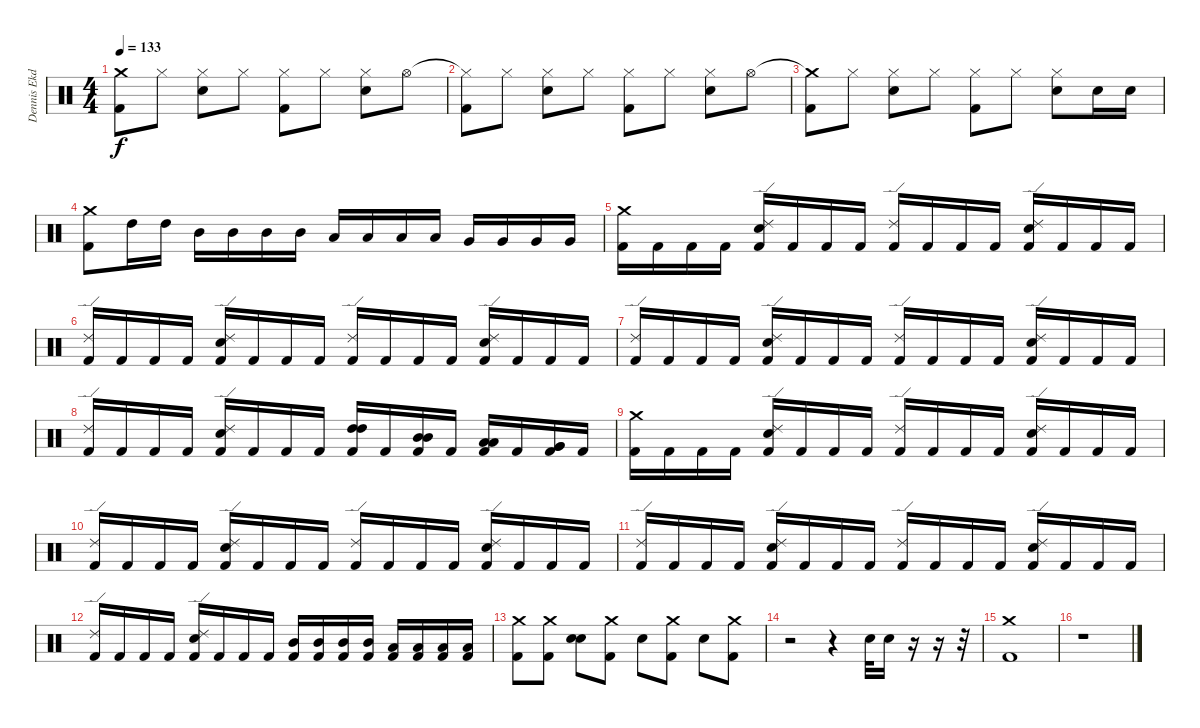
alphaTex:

\track ("Dennis Ekdahl" "Dennis Ekd") {instrument percussion}
\staff {score}
\articulation defaults
\ts (4 4)
\tempo 133
\clef neutral
\ks c
("Crash medium (hit)" "Kick (hit) 2").8{dy f} "Hi-Hat (closed)".8 ("Hi-Hat (closed)" "Snare (hit) 2").8 "Hi-Hat (closed)".8 ("Hi-Hat (closed)" "Kick (hit) 2").8 "Hi-Hat (closed)".8 ("Hi-Hat (closed)" "Snare (hit) 2").8 "Hi-Hat (open)".8 |
("Hi-Hat (closed)"{t} "Kick (hit) 2").8 "Hi-Hat (closed)".8 ("Hi-Hat (closed)" "Snare (hit) 2").8 "Hi-Hat (closed)".8 ("Hi-Hat (closed)" "Kick (hit) 2").8 "Hi-Hat (closed)".8 ("Hi-Hat (closed)" "Snare (hit) 2").8 "Hi-Hat (open)".8 |
("Crash medium (hit)"{t} "Kick (hit) 2").8 "Hi-Hat (closed)".8 ("Hi-Hat (closed)" "Snare (hit) 2").8 "Hi-Hat (closed)".8 ("Hi-Hat (closed)" "Kick (hit) 2").8 "Hi-Hat (closed)".8 ("Hi-Hat (closed)" "Snare (hit) 2").8 "Snare (hit) 2".16 "Snare (hit) 2".16 |
("Crash medium (hit)" "Kick (hit) 2").8 "High Tom (hit)".16 "High Tom (hit)".16 "Mid Tom (hit)".16 "Mid Tom (hit)".16 "Mid Tom (hit)".16 "Mid Tom (hit)".16 "Low Tom (hit)".16 "Low Tom (hit)".16 "Low Tom (hit)".16 "Low Tom (hit)".16 "Very Low Tom (hit)".16 "Very Low Tom (hit)".16 "Very Low Tom (hit)".16 "Very Low Tom (hit)".16 |
("Crash medium (hit)" "Kick (hit) 2").16 "Kick (hit) 2".16 "Kick (hit) 2".16 "Kick (hit) 2".16 ("Ride (edge) 2" "Snare (hit) 2" "Kick (hit) 2").16 "Kick (hit) 2".16 "Kick (hit) 2".16 "Kick (hit) 2".16 ("Ride (edge) 2" "Kick (hit) 2").16 "Kick (hit) 2".16 "Kick (hit) 2".16 "Kick (hit) 2".16 ("Ride (edge) 2" "Snare (hit) 2" "Kick (hit) 2").16 "Kick (hit) 2".16 "Kick (hit) 2".16 "Kick (hit) 2".16 |
("Ride (edge) 2" "Kick (hit) 2").16 "Kick (hit) 2".16 "Kick (hit) 2".16 "Kick (hit) 2".16 ("Ride (edge) 2" "Snare (hit) 2" "Kick (hit) 2").16 "Kick (hit) 2".16 "Kick (hit) 2".16 "Kick (hit) 2".16 ("Ride (edge) 2" "Kick (hit) 2").16 "Kick (hit) 2".16 "Kick (hit) 2".16 "Kick (hit) 2".16 ("Ride (edge) 2" "Snare (hit) 2" "Kick (hit) 2").16 "Kick (hit) 2".16 "Kick (hit) 2".16 "Kick (hit) 2".16 |
("Ride (edge) 2" "Kick (hit) 2").16 "Kick (hit) 2".16 "Kick (hit) 2".16 "Kick (hit) 2".16 ("Ride (edge) 2" "Snare (hit) 2" "Kick (hit) 2").16 "Kick (hit) 2".16 "Kick (hit) 2".16 "Kick (hit) 2".16 ("Ride (edge) 2" "Kick (hit) 2").16 "Kick (hit) 2".16 "Kick (hit) 2".16 "Kick (hit) 2".16 ("Ride (edge) 2" "Snare (hit) 2" "Kick (hit) 2").16 "Kick (hit) 2".16 "Kick (hit) 2".16 "Kick (hit) 2".16 |
("Ride (edge) 2" "Kick (hit) 2").16 "Kick (hit) 2".16 "Kick (hit) 2".16 "Kick (hit) 2".16 ("Ride (edge) 2" "Snare (hit) 2" "Kick (hit) 2").16 "Kick (hit) 2".16 "Kick (hit) 2".16 "Kick (hit) 2".16 ("High Tom (hit)" "High Tom (hit)" "Kick (hit) 2").16 "Kick (hit) 2".16 ("Mid Tom (hit)" "Mid Tom (hit)" "Kick (hit) 2").16 "Kick (hit) 2".16 ("Low Tom (hit)" "Low Tom (hit)" "Kick (hit) 2").16 "Kick (hit) 2".16 ("Very Low Tom (hit)" "Very Low Tom (hit)" "Kick (hit) 2").16 "Kick (hit) 2".16 |
("Crash medium (hit)" "Kick (hit) 2").16 "Kick (hit) 2".16 "Kick (hit) 2".16 "Kick (hit) 2".16 ("Ride (edge) 2" "Snare (hit) 2" "Kick (hit) 2").16 "Kick (hit) 2".16 "Kick (hit) 2".16 "Kick (hit) 2".16 ("Ride (edge) 2" "Kick (hit) 2").16 "Kick (hit) 2".16 "Kick (hit) 2".16 "Kick (hit) 2".16 ("Ride (edge) 2" "Snare (hit) 2" "Kick (hit) 2").16 "Kick (hit) 2".16 "Kick (hit) 2".16 "Kick (hit) 2".16 |
("Ride (edge) 2" "Kick (hit) 2").16 "Kick (hit) 2".16 "Kick (hit) 2".16 "Kick (hit) 2".16 ("Ride (edge) 2" "Snare (hit) 2" "Kick (hit) 2").16 "Kick (hit) 2".16 "Kick (hit) 2".16 "Kick (hit) 2".16 ("Ride (edge) 2" "Kick (hit) 2").16 "Kick (hit) 2".16 "Kick (hit) 2".16 "Kick (hit) 2".16 ("Ride (edge) 2" "Snare (hit) 2" "Kick (hit) 2").16 "Kick (hit) 2".16 "Kick (hit) 2".16 "Kick (hit) 2".16 |
("Ride (edge) 2" "Kick (hit) 2").16 "Kick (hit) 2".16 "Kick (hit) 2".16 "Kick (hit) 2".16 ("Ride (edge) 2" "Snare (hit) 2" "Kick (hit) 2").16 "Kick (hit) 2".16 "Kick (hit) 2".16 "Kick (hit) 2".16 ("Ride (edge) 2" "Kick (hit) 2").16 "Kick (hit) 2".16 "Kick (hit) 2".16 "Kick (hit) 2".16 ("Ride (edge) 2" "Snare (hit) 2" "Kick (hit) 2").16 "Kick (hit) 2".16 "Kick (hit) 2".16 "Kick (hit) 2".16 |
("Ride (edge) 2" "Kick (hit) 2").16 "Kick (hit) 2".16 "Kick (hit) 2".16 "Kick (hit) 2".16 ("Ride (edge) 2" "Snare (hit) 2" "Kick (hit) 2").16 "Kick (hit) 2".16 "Kick (hit) 2".16 "Kick (hit) 2".16 ("Mid Tom (hit)" "Kick (hit) 2").16 ("Mid Tom (hit)" "Kick (hit) 2").16 ("Mid Tom (hit)" "Kick (hit) 2").16 ("Mid Tom (hit)" "Kick (hit) 2").16 ("Low Tom (hit)" "Kick (hit) 2").16 ("Low Tom (hit)" "Kick (hit) 2").16 ("Low Tom (hit)" "Kick (hit) 2").16 ("Low Tom (hit)" "Kick (hit) 2").16 |
("Crash medium (hit)" "Kick (hit) 2").8 ("Crash medium (hit)" "Kick (hit) 2").8 ("Snare (hit) 2" "Snare (hit) 2").8 ("Crash medium (hit)" "Kick (hit) 2").8 "Snare (hit) 2".8 ("Crash medium (hit)" "Kick (hit) 2").8 "Snare (hit) 2".8 ("Crash medium (hit)" "Kick (hit) 2").8 |
r.2 r.4 "Snare (hit) 2".32 "Snare (hit) 2".16 r.16 r.16 r.32 |
("Crash medium (hit)" "Kick (hit) 2").1 |
r.1
